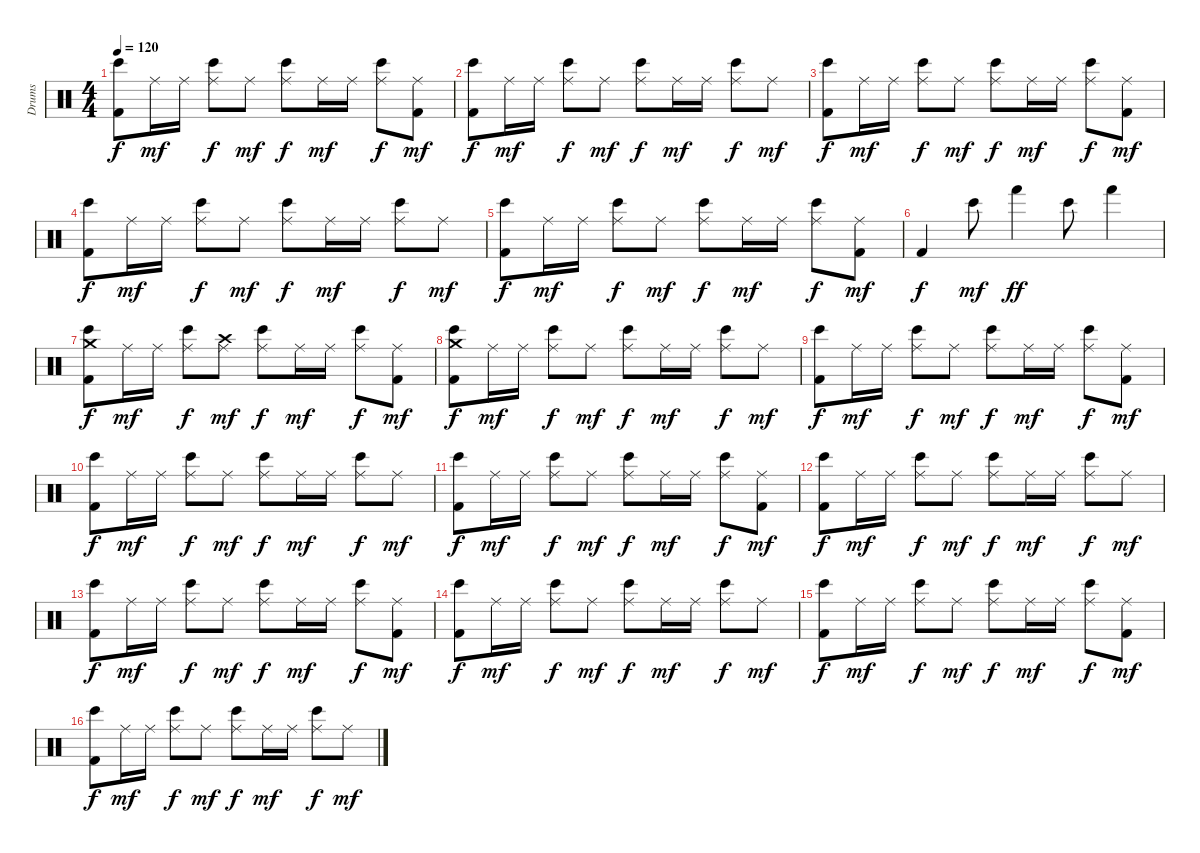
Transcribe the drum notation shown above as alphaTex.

\track ("Drums" "Drums") {instrument percussion}
\staff {score}
\articulation defaults
\ts (4 4)
\tempo 120
\clef neutral
\ks c
("Kick (hit) 2" "Bongo High (hit)").8{dy f} "Ride (middle)".16{dy mf} "Ride (middle)".16 ("Bongo High (hit)" "Ride (middle)").8{dy f} "Ride (middle)".8{dy mf} ("Bongo High (hit)" "Ride (middle)").8{dy f} "Ride (middle)".16{dy mf} "Ride (middle)".16 ("Bongo High (hit)" "Ride (middle)").8{dy f} ("Kick (hit) 2" "Ride (middle)").8{dy mf} |
("Kick (hit) 2" "Bongo High (hit)").8{dy f} "Ride (middle)".16{dy mf} "Ride (middle)".16 ("Bongo High (hit)" "Ride (middle)").8{dy f} "Ride (middle)".8{dy mf} ("Bongo High (hit)" "Ride (middle)").8{dy f} "Ride (middle)".16{dy mf} "Ride (middle)".16 ("Bongo High (hit)" "Ride (middle)").8{dy f} "Ride (middle)".8{dy mf} |
("Kick (hit) 2" "Bongo High (hit)").8{dy f} "Ride (middle)".16{dy mf} "Ride (middle)".16 ("Bongo High (hit)" "Ride (middle)").8{dy f} "Ride (middle)".8{dy mf} ("Bongo High (hit)" "Ride (middle)").8{dy f} "Ride (middle)".16{dy mf} "Ride (middle)".16 ("Bongo High (hit)" "Ride (middle)").8{dy f} ("Kick (hit) 2" "Ride (middle)").8{dy mf} |
("Kick (hit) 2" "Bongo High (hit)").8{dy f} "Ride (middle)".16{dy mf} "Ride (middle)".16 ("Bongo High (hit)" "Ride (middle)").8{dy f} "Ride (middle)".8{dy mf} ("Bongo High (hit)" "Ride (middle)").8{dy f} "Ride (middle)".16{dy mf} "Ride (middle)".16 ("Bongo High (hit)" "Ride (middle)").8{dy f} "Ride (middle)".8{dy mf} |
("Kick (hit) 2" "Bongo High (hit)").8{dy f} "Ride (middle)".16{dy mf} "Ride (middle)".16 ("Bongo High (hit)" "Ride (middle)").8{dy f} "Ride (middle)".8{dy mf} ("Bongo High (hit)" "Ride (middle)").8{dy f} "Ride (middle)".16{dy mf} "Ride (middle)".16 ("Bongo High (hit)" "Ride (middle)").8{dy f} ("Kick (hit) 2" "Ride (middle)").8{dy mf} |
"Kick (hit) 2".4{dy f} "Bongo High (hit)".8{dy mf} "Hand (hit)".4{dy ff} "Bongo High (hit)".8 "Hand (hit)".4 |
("Kick (hit) 2" "Bongo High (hit)" "Crash medium (hit)").8{dy f} "Ride (middle)".16{dy mf} "Ride (middle)".16 ("Bongo High (hit)" "Ride (middle)").8{dy f} ("Ride (middle)" "Crash high (hit)").8{dy mf} ("Bongo High (hit)" "Ride (middle)").8{dy f} "Ride (middle)".16{dy mf} "Ride (middle)".16 ("Bongo High (hit)" "Ride (middle)").8{dy f} ("Kick (hit) 2" "Ride (middle)").8{dy mf} |
("Kick (hit) 2" "Bongo High (hit)" "Crash medium (hit)").8{dy f} "Ride (middle)".16{dy mf} "Ride (middle)".16 ("Bongo High (hit)" "Ride (middle)").8{dy f} "Ride (middle)".8{dy mf} ("Bongo High (hit)" "Ride (middle)").8{dy f} "Ride (middle)".16{dy mf} "Ride (middle)".16 ("Bongo High (hit)" "Ride (middle)").8{dy f} "Ride (middle)".8{dy mf} |
("Kick (hit) 2" "Bongo High (hit)").8{dy f} "Ride (middle)".16{dy mf} "Ride (middle)".16 ("Bongo High (hit)" "Ride (middle)").8{dy f} "Ride (middle)".8{dy mf} ("Bongo High (hit)" "Ride (middle)").8{dy f} "Ride (middle)".16{dy mf} "Ride (middle)".16 ("Bongo High (hit)" "Ride (middle)").8{dy f} ("Kick (hit) 2" "Ride (middle)").8{dy mf} |
("Kick (hit) 2" "Bongo High (hit)").8{dy f} "Ride (middle)".16{dy mf} "Ride (middle)".16 ("Bongo High (hit)" "Ride (middle)").8{dy f} "Ride (middle)".8{dy mf} ("Bongo High (hit)" "Ride (middle)").8{dy f} "Ride (middle)".16{dy mf} "Ride (middle)".16 ("Bongo High (hit)" "Ride (middle)").8{dy f} "Ride (middle)".8{dy mf} |
("Kick (hit) 2" "Bongo High (hit)").8{dy f} "Ride (middle)".16{dy mf} "Ride (middle)".16 ("Bongo High (hit)" "Ride (middle)").8{dy f} "Ride (middle)".8{dy mf} ("Bongo High (hit)" "Ride (middle)").8{dy f} "Ride (middle)".16{dy mf} "Ride (middle)".16 ("Bongo High (hit)" "Ride (middle)").8{dy f} ("Kick (hit) 2" "Ride (middle)").8{dy mf} |
("Kick (hit) 2" "Bongo High (hit)").8{dy f} "Ride (middle)".16{dy mf} "Ride (middle)".16 ("Bongo High (hit)" "Ride (middle)").8{dy f} "Ride (middle)".8{dy mf} ("Bongo High (hit)" "Ride (middle)").8{dy f} "Ride (middle)".16{dy mf} "Ride (middle)".16 ("Bongo High (hit)" "Ride (middle)").8{dy f} "Ride (middle)".8{dy mf} |
("Kick (hit) 2" "Bongo High (hit)").8{dy f} "Ride (middle)".16{dy mf} "Ride (middle)".16 ("Bongo High (hit)" "Ride (middle)").8{dy f} "Ride (middle)".8{dy mf} ("Bongo High (hit)" "Ride (middle)").8{dy f} "Ride (middle)".16{dy mf} "Ride (middle)".16 ("Bongo High (hit)" "Ride (middle)").8{dy f} ("Kick (hit) 2" "Ride (middle)").8{dy mf} |
("Kick (hit) 2" "Bongo High (hit)").8{dy f} "Ride (middle)".16{dy mf} "Ride (middle)".16 ("Bongo High (hit)" "Ride (middle)").8{dy f} "Ride (middle)".8{dy mf} ("Bongo High (hit)" "Ride (middle)").8{dy f} "Ride (middle)".16{dy mf} "Ride (middle)".16 ("Bongo High (hit)" "Ride (middle)").8{dy f} "Ride (middle)".8{dy mf} |
("Kick (hit) 2" "Bongo High (hit)").8{dy f} "Ride (middle)".16{dy mf} "Ride (middle)".16 ("Bongo High (hit)" "Ride (middle)").8{dy f} "Ride (middle)".8{dy mf} ("Bongo High (hit)" "Ride (middle)").8{dy f} "Ride (middle)".16{dy mf} "Ride (middle)".16 ("Bongo High (hit)" "Ride (middle)").8{dy f} ("Kick (hit) 2" "Ride (middle)").8{dy mf} |
("Kick (hit) 2" "Bongo High (hit)").8{dy f} "Ride (middle)".16{dy mf} "Ride (middle)".16 ("Bongo High (hit)" "Ride (middle)").8{dy f} "Ride (middle)".8{dy mf} ("Bongo High (hit)" "Ride (middle)").8{dy f} "Ride (middle)".16{dy mf} "Ride (middle)".16 ("Bongo High (hit)" "Ride (middle)").8{dy f} "Ride (middle)".8{dy mf}
